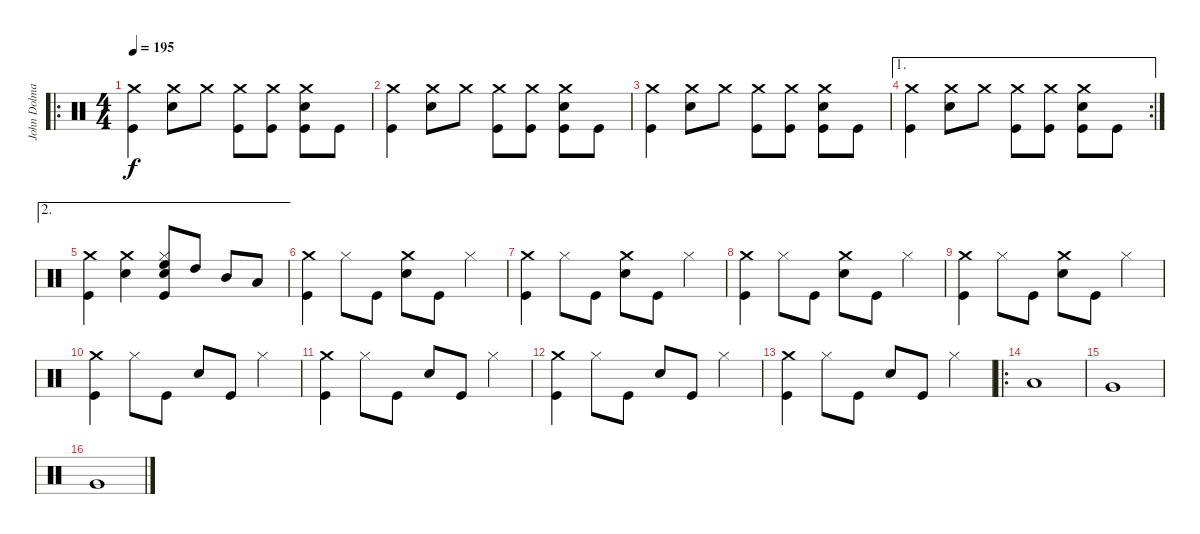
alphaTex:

\track ("John Dolmayan" "John Dolma") {instrument percussion}
\staff {score}
\articulation defaults
\ro
\ts (4 4)
\tempo 195
\clef neutral
\ks c
("Crash medium (hit)" "Kick (hit)").4{dy f} ("Crash medium (hit)" "Snare (hit) 2").8 "Crash medium (hit)".8 ("Crash medium (hit)" "Kick (hit)").8 ("Crash medium (hit)" "Kick (hit)").8 ("Crash medium (hit)" "Snare (hit) 2" "Kick (hit)").8 "Kick (hit)".8 |
("Crash medium (hit)" "Kick (hit)").4 ("Crash medium (hit)" "Snare (hit) 2").8 "Crash medium (hit)".8 ("Crash medium (hit)" "Kick (hit)").8 ("Crash medium (hit)" "Kick (hit)").8 ("Crash medium (hit)" "Snare (hit) 2" "Kick (hit)").8 "Kick (hit)".8 |
("Crash medium (hit)" "Kick (hit)").4 ("Crash medium (hit)" "Snare (hit) 2").8 "Crash medium (hit)".8 ("Crash medium (hit)" "Kick (hit)").8 ("Crash medium (hit)" "Kick (hit)").8 ("Crash medium (hit)" "Snare (hit) 2" "Kick (hit)").8 "Kick (hit)".8 |
\ae 1
\rc 2
("Crash medium (hit)" "Kick (hit)").4 ("Crash medium (hit)" "Snare (hit) 2").8 "Crash medium (hit)".8 ("Crash medium (hit)" "Kick (hit)").8 ("Crash medium (hit)" "Kick (hit)").8 ("Crash medium (hit)" "Snare (hit) 2" "Kick (hit)").8 "Kick (hit)".8 |
\ae 2
("Crash medium (hit)" "Kick (hit)").4 ("Crash medium (hit)" "Snare (hit) 2").4 ("Hi-Hat (closed)" "Snare (hit) 2" "High Floor Tom (hit)" "Kick (hit)").8 "High Tom (hit)".8 "Mid Tom (hit)".8 "Low Tom (hit)".8 |
("Crash medium (hit)" "Kick (hit)").4 "Hi-Hat (closed)".8 "Kick (hit)".8 ("Crash medium (hit)" "Snare (hit) 2").8 "Kick (hit)".8 "Hi-Hat (closed)".4 |
("Crash medium (hit)" "Kick (hit)").4 "Hi-Hat (closed)".8 "Kick (hit)".8 ("Crash medium (hit)" "Snare (hit) 2").8 "Kick (hit)".8 "Hi-Hat (closed)".4 |
("Crash medium (hit)" "Kick (hit)").4 "Hi-Hat (closed)".8 "Kick (hit)".8 ("Crash medium (hit)" "Snare (hit) 2").8 "Kick (hit)".8 "Hi-Hat (closed)".4 |
("Crash medium (hit)" "Kick (hit)").4 "Hi-Hat (closed)".8 "Kick (hit)".8 ("Crash medium (hit)" "Snare (hit) 2").8 "Kick (hit)".8 "Hi-Hat (closed)".4 |
("Crash medium (hit)" "Kick (hit)").4 "Hi-Hat (closed)".8 "Kick (hit)".8 "Snare (hit) 2".8 "Kick (hit)".8 "Hi-Hat (closed)".4 |
("Crash medium (hit)" "Kick (hit)").4 "Hi-Hat (closed)".8 "Kick (hit)".8 "Snare (hit) 2".8 "Kick (hit)".8 "Hi-Hat (closed)".4 |
("Crash medium (hit)" "Kick (hit)").4 "Hi-Hat (closed)".8 "Kick (hit)".8 "Snare (hit) 2".8 "Kick (hit)".8 "Hi-Hat (closed)".4 |
("Crash medium (hit)" "Kick (hit)").4 "Hi-Hat (closed)".8 "Kick (hit)".8 "Snare (hit) 2".8 "Kick (hit)".8 "Hi-Hat (closed)".4 |
\ro "Low Floor Tom (hit)".1
|
"Very Low Tom (hit)".1 |
"Very Low Tom (hit)".1
